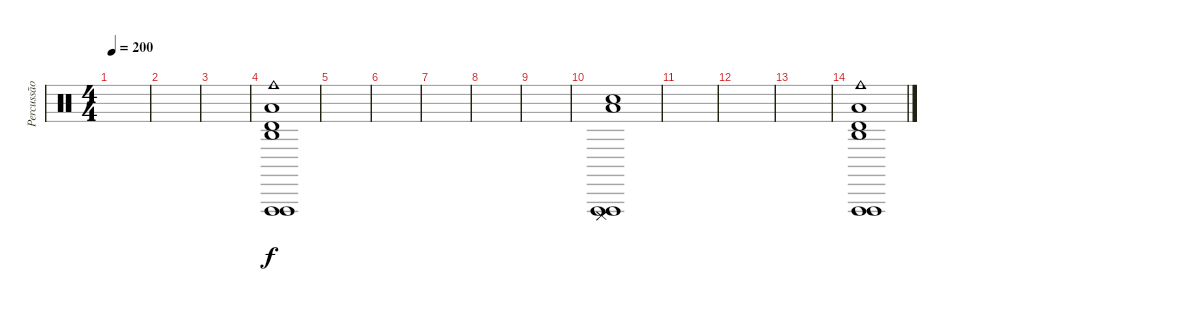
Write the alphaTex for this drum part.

\track ("Percussão" "Percussão") {instrument percussion}
\staff {score}
\articulation defaults
\ts (4 4)
\tempo 200
\clef neutral
\ks c
|
|
|
("Low Tom (hit)" "Vibraslap (hit)" "Cowbell medium (hit)" "Agogo high (hit)" "Vibraslap (hit)" "Timbale high (hit)").1 |
|
|
|
|
|
("Low Tom (hit)" "Vibraslap (hit)" "Cuica (mute)" "Snare (hit)" "Vibraslap (hit)" "Cuica (mute)").1 |
|
|
|
("Low Tom (hit)" "Vibraslap (hit)" "Cowbell medium (hit)" "Agogo high (hit)" "Vibraslap (hit)" "Timbale high (hit)").1
